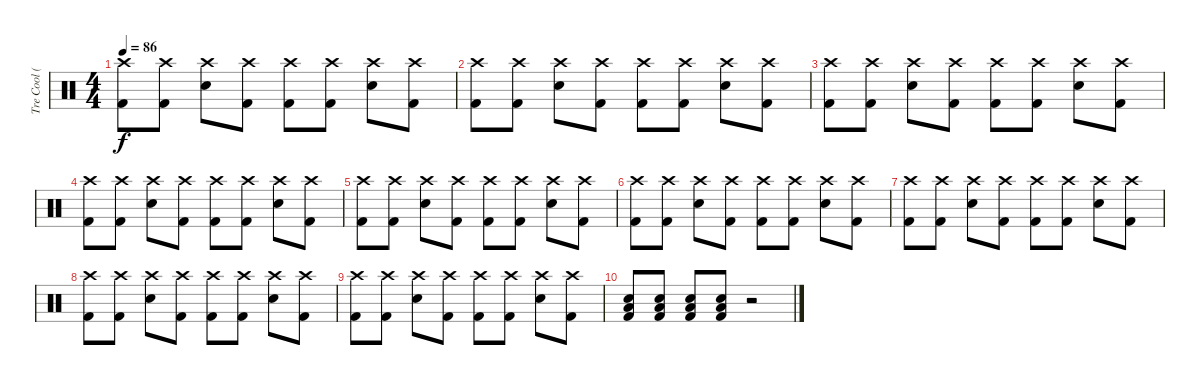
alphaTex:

\track ("Tre Cool (Drums)" "Tre Cool (") {instrument percussion}
\staff {score}
\articulation defaults
\ts (4 4)
\tempo 86
\clef neutral
\ks c
("Crash high (hit)" "Kick (hit) 2").8{dy f} ("Crash high (hit)" "Kick (hit) 2").8 ("Crash high (hit)" "Snare (hit) 2").8 ("Crash high (hit)" "Kick (hit) 2").8 ("Crash high (hit)" "Kick (hit) 2").8 ("Crash high (hit)" "Kick (hit) 2").8 ("Crash high (hit)" "Snare (hit) 2").8 ("Crash high (hit)" "Kick (hit) 2").8 |
("Crash high (hit)" "Kick (hit) 2").8 ("Crash high (hit)" "Kick (hit) 2").8 ("Crash high (hit)" "Snare (hit) 2").8 ("Crash high (hit)" "Kick (hit) 2").8 ("Crash high (hit)" "Kick (hit) 2").8 ("Crash high (hit)" "Kick (hit) 2").8 ("Crash high (hit)" "Snare (hit) 2").8 ("Crash high (hit)" "Kick (hit) 2").8 |
("Crash high (hit)" "Kick (hit) 2").8 ("Crash high (hit)" "Kick (hit) 2").8 ("Crash high (hit)" "Snare (hit) 2").8 ("Crash high (hit)" "Kick (hit) 2").8 ("Crash high (hit)" "Kick (hit) 2").8 ("Crash high (hit)" "Kick (hit) 2").8 ("Crash high (hit)" "Snare (hit) 2").8 ("Crash high (hit)" "Kick (hit) 2").8 |
("Crash high (hit)" "Kick (hit) 2").8 ("Crash high (hit)" "Kick (hit) 2").8 ("Crash high (hit)" "Snare (hit) 2").8 ("Crash high (hit)" "Kick (hit) 2").8 ("Crash high (hit)" "Kick (hit) 2").8 ("Crash high (hit)" "Kick (hit) 2").8 ("Crash high (hit)" "Snare (hit) 2").8 ("Crash high (hit)" "Kick (hit) 2").8 |
("Crash high (hit)" "Kick (hit) 2").8 ("Crash high (hit)" "Kick (hit) 2").8 ("Crash high (hit)" "Snare (hit) 2").8 ("Crash high (hit)" "Kick (hit) 2").8 ("Crash high (hit)" "Kick (hit) 2").8 ("Crash high (hit)" "Kick (hit) 2").8 ("Crash high (hit)" "Snare (hit) 2").8 ("Crash high (hit)" "Kick (hit) 2").8 |
("Crash high (hit)" "Kick (hit) 2").8 ("Crash high (hit)" "Kick (hit) 2").8 ("Crash high (hit)" "Snare (hit) 2").8 ("Crash high (hit)" "Kick (hit) 2").8 ("Crash high (hit)" "Kick (hit) 2").8 ("Crash high (hit)" "Kick (hit) 2").8 ("Crash high (hit)" "Snare (hit) 2").8 ("Crash high (hit)" "Kick (hit) 2").8 |
("Crash high (hit)" "Kick (hit) 2").8 ("Crash high (hit)" "Kick (hit) 2").8 ("Crash high (hit)" "Snare (hit) 2").8 ("Crash high (hit)" "Kick (hit) 2").8 ("Crash high (hit)" "Kick (hit) 2").8 ("Crash high (hit)" "Kick (hit) 2").8 ("Crash high (hit)" "Snare (hit) 2").8 ("Crash high (hit)" "Kick (hit) 2").8 |
("Crash high (hit)" "Kick (hit) 2").8 ("Crash high (hit)" "Kick (hit) 2").8 ("Crash high (hit)" "Snare (hit) 2").8 ("Crash high (hit)" "Kick (hit) 2").8 ("Crash high (hit)" "Kick (hit) 2").8 ("Crash high (hit)" "Kick (hit) 2").8 ("Crash high (hit)" "Snare (hit) 2").8 ("Crash high (hit)" "Kick (hit) 2").8 |
("Crash high (hit)" "Kick (hit) 2").8 ("Crash high (hit)" "Kick (hit) 2").8 ("Crash high (hit)" "Snare (hit) 2").8 ("Crash high (hit)" "Kick (hit) 2").8 ("Crash high (hit)" "Kick (hit) 2").8 ("Crash high (hit)" "Kick (hit) 2").8 ("Crash high (hit)" "Snare (hit) 2").8 ("Crash high (hit)" "Kick (hit) 2").8 |
("Low Tom (hit)" "Snare (hit) 2" "Kick (hit) 2").8 ("Low Tom (hit)" "Snare (hit) 2" "Kick (hit) 2").8 ("Low Tom (hit)" "Snare (hit) 2" "Kick (hit) 2").8 ("Low Tom (hit)" "Snare (hit) 2" "Kick (hit) 2").8 r.2
